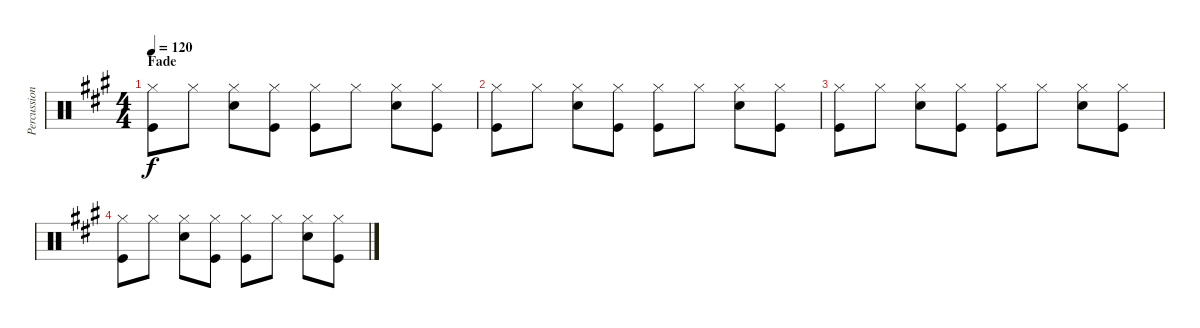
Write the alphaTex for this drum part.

\track ("Percussion" "Percussion") {instrument percussion}
\staff {score}
\articulation defaults
\ts (4 4)
\section ("" "Fade")
\tempo 120
\clef neutral
\ks a
("Hi-Hat (closed)" "Kick (hit)").8{dy f} "Hi-Hat (closed)".8 ("Hi-Hat (closed)" "Snare (hit) 2").8 ("Hi-Hat (closed)" "Kick (hit)").8 ("Hi-Hat (closed)" "Kick (hit)").8 "Hi-Hat (closed)".8 ("Hi-Hat (closed)" "Snare (hit) 2").8 ("Hi-Hat (closed)" "Kick (hit)").8 |
("Hi-Hat (closed)" "Kick (hit)").8 "Hi-Hat (closed)".8 ("Hi-Hat (closed)" "Snare (hit) 2").8 ("Hi-Hat (closed)" "Kick (hit)").8 ("Hi-Hat (closed)" "Kick (hit)").8 "Hi-Hat (closed)".8 ("Hi-Hat (closed)" "Snare (hit) 2").8 ("Hi-Hat (closed)" "Kick (hit)").8 |
("Hi-Hat (closed)" "Kick (hit)").8 "Hi-Hat (closed)".8 ("Hi-Hat (closed)" "Snare (hit) 2").8 ("Hi-Hat (closed)" "Kick (hit)").8 ("Hi-Hat (closed)" "Kick (hit)").8 "Hi-Hat (closed)".8 ("Hi-Hat (closed)" "Snare (hit) 2").8 ("Hi-Hat (closed)" "Kick (hit)").8 |
("Hi-Hat (closed)" "Kick (hit)").8 "Hi-Hat (closed)".8 ("Hi-Hat (closed)" "Snare (hit) 2").8 ("Hi-Hat (closed)" "Kick (hit)").8 ("Hi-Hat (closed)" "Kick (hit)").8 "Hi-Hat (closed)".8 ("Hi-Hat (closed)" "Snare (hit) 2").8 ("Hi-Hat (closed)" "Kick (hit)").8
